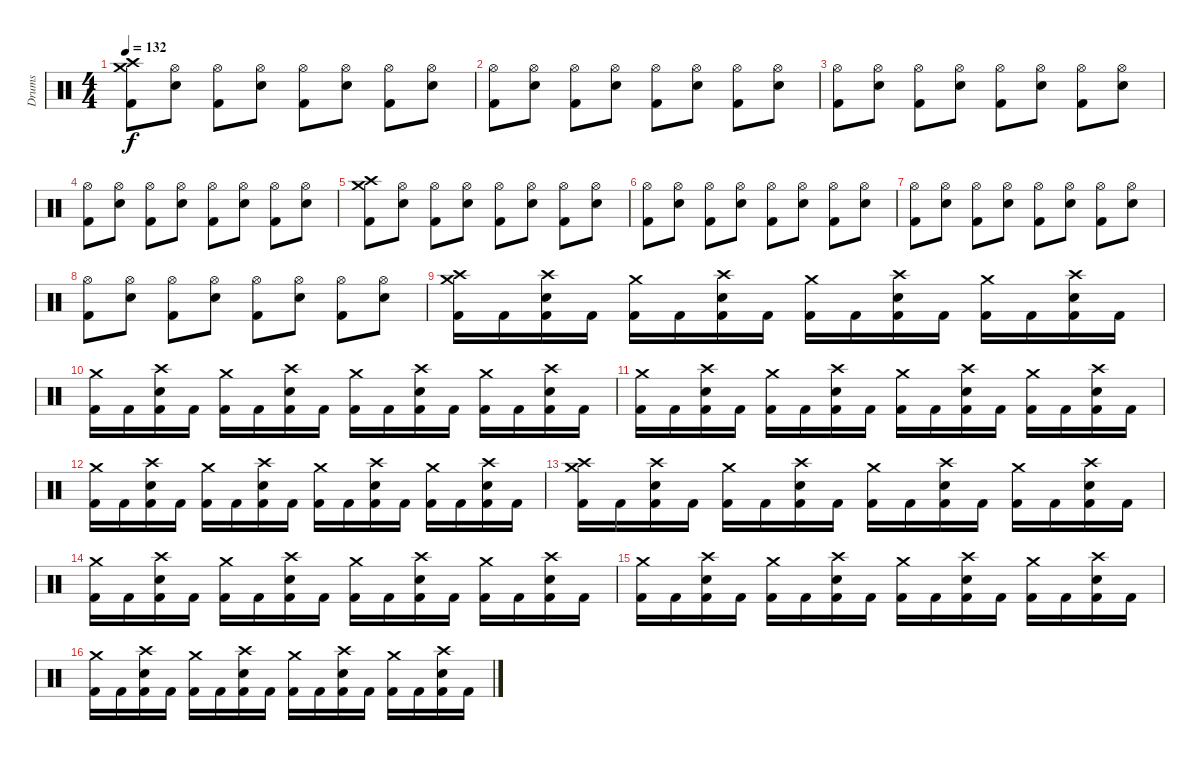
\track ("Drums" "Drums") {instrument percussion}
\staff {score}
\articulation defaults
\ts (4 4)
\tempo 132
\clef neutral
\ks c
("Crash high (hit)" "Crash medium (hit)" "Kick (hit) 2").8{dy f} ("Hi-Hat (open)" "Electric Snare (hit)").8 ("Hi-Hat (open)" "Kick (hit) 2").8 ("Hi-Hat (open)" "Electric Snare (hit)").8 ("Hi-Hat (open)" "Kick (hit) 2").8 ("Hi-Hat (open)" "Electric Snare (hit)").8 ("Hi-Hat (open)" "Kick (hit) 2").8 ("Hi-Hat (open)" "Electric Snare (hit)").8 |
("Hi-Hat (open)" "Kick (hit) 2").8 ("Hi-Hat (open)" "Electric Snare (hit)").8 ("Hi-Hat (open)" "Kick (hit) 2").8 ("Hi-Hat (open)" "Electric Snare (hit)").8 ("Hi-Hat (open)" "Kick (hit) 2").8 ("Hi-Hat (open)" "Electric Snare (hit)").8 ("Hi-Hat (open)" "Kick (hit) 2").8 ("Hi-Hat (open)" "Electric Snare (hit)").8 |
("Hi-Hat (open)" "Kick (hit) 2").8 ("Hi-Hat (open)" "Electric Snare (hit)").8 ("Hi-Hat (open)" "Kick (hit) 2").8 ("Hi-Hat (open)" "Electric Snare (hit)").8 ("Hi-Hat (open)" "Kick (hit) 2").8 ("Hi-Hat (open)" "Electric Snare (hit)").8 ("Hi-Hat (open)" "Kick (hit) 2").8 ("Hi-Hat (open)" "Electric Snare (hit)").8 |
("Hi-Hat (open)" "Kick (hit) 2").8 ("Hi-Hat (open)" "Electric Snare (hit)").8 ("Hi-Hat (open)" "Kick (hit) 2").8 ("Hi-Hat (open)" "Electric Snare (hit)").8 ("Hi-Hat (open)" "Kick (hit) 2").8 ("Hi-Hat (open)" "Electric Snare (hit)").8 ("Hi-Hat (open)" "Kick (hit) 2").8 ("Hi-Hat (open)" "Electric Snare (hit)").8 |
("Crash high (hit)" "Crash medium (hit)" "Kick (hit) 2").8 ("Hi-Hat (open)" "Electric Snare (hit)").8 ("Hi-Hat (open)" "Kick (hit) 2").8 ("Hi-Hat (open)" "Electric Snare (hit)").8 ("Hi-Hat (open)" "Kick (hit) 2").8 ("Hi-Hat (open)" "Electric Snare (hit)").8 ("Hi-Hat (open)" "Kick (hit) 2").8 ("Hi-Hat (open)" "Electric Snare (hit)").8 |
("Hi-Hat (open)" "Kick (hit) 2").8 ("Hi-Hat (open)" "Electric Snare (hit)").8 ("Hi-Hat (open)" "Kick (hit) 2").8 ("Hi-Hat (open)" "Electric Snare (hit)").8 ("Hi-Hat (open)" "Kick (hit) 2").8 ("Hi-Hat (open)" "Electric Snare (hit)").8 ("Hi-Hat (open)" "Kick (hit) 2").8 ("Hi-Hat (open)" "Electric Snare (hit)").8 |
("Hi-Hat (open)" "Kick (hit) 2").8 ("Hi-Hat (open)" "Electric Snare (hit)").8 ("Hi-Hat (open)" "Kick (hit) 2").8 ("Hi-Hat (open)" "Electric Snare (hit)").8 ("Hi-Hat (open)" "Kick (hit) 2").8 ("Hi-Hat (open)" "Electric Snare (hit)").8 ("Hi-Hat (open)" "Kick (hit) 2").8 ("Hi-Hat (open)" "Electric Snare (hit)").8 |
("Hi-Hat (open)" "Kick (hit) 2").8 ("Hi-Hat (open)" "Electric Snare (hit)").8 ("Hi-Hat (open)" "Kick (hit) 2").8 ("Hi-Hat (open)" "Electric Snare (hit)").8 ("Hi-Hat (open)" "Kick (hit) 2").8 ("Hi-Hat (open)" "Electric Snare (hit)").8 ("Hi-Hat (open)" "Kick (hit) 2").8 ("Hi-Hat (open)" "Electric Snare (hit)").8 |
("Crash high (hit)" "Crash medium (hit)" "Kick (hit) 2").16 "Kick (hit) 2".16 ("Crash high (hit)" "Kick (hit) 2" "Electric Snare (hit)").16 "Kick (hit) 2".16 ("Crash medium (hit)" "Kick (hit) 2").16 "Kick (hit) 2".16 ("Crash high (hit)" "Kick (hit) 2" "Electric Snare (hit)").16 "Kick (hit) 2".16 ("Crash medium (hit)" "Kick (hit) 2").16 "Kick (hit) 2".16 ("Crash high (hit)" "Kick (hit) 2" "Electric Snare (hit)").16 "Kick (hit) 2".16 ("Crash medium (hit)" "Kick (hit) 2").16 "Kick (hit) 2".16 ("Crash high (hit)" "Kick (hit) 2" "Electric Snare (hit)").16 "Kick (hit) 2".16 |
("Crash medium (hit)" "Kick (hit) 2").16 "Kick (hit) 2".16 ("Crash high (hit)" "Kick (hit) 2" "Electric Snare (hit)").16 "Kick (hit) 2".16 ("Crash medium (hit)" "Kick (hit) 2").16 "Kick (hit) 2".16 ("Crash high (hit)" "Kick (hit) 2" "Electric Snare (hit)").16 "Kick (hit) 2".16 ("Crash medium (hit)" "Kick (hit) 2").16 "Kick (hit) 2".16 ("Crash high (hit)" "Kick (hit) 2" "Electric Snare (hit)").16 "Kick (hit) 2".16 ("Crash medium (hit)" "Kick (hit) 2").16 "Kick (hit) 2".16 ("Crash high (hit)" "Kick (hit) 2" "Electric Snare (hit)").16 "Kick (hit) 2".16 |
("Crash medium (hit)" "Kick (hit) 2").16 "Kick (hit) 2".16 ("Crash high (hit)" "Kick (hit) 2" "Electric Snare (hit)").16 "Kick (hit) 2".16 ("Crash medium (hit)" "Kick (hit) 2").16 "Kick (hit) 2".16 ("Crash high (hit)" "Kick (hit) 2" "Electric Snare (hit)").16 "Kick (hit) 2".16 ("Crash medium (hit)" "Kick (hit) 2").16 "Kick (hit) 2".16 ("Crash high (hit)" "Kick (hit) 2" "Electric Snare (hit)").16 "Kick (hit) 2".16 ("Crash medium (hit)" "Kick (hit) 2").16 "Kick (hit) 2".16 ("Crash high (hit)" "Kick (hit) 2" "Electric Snare (hit)").16 "Kick (hit) 2".16 |
("Crash medium (hit)" "Kick (hit) 2").16 "Kick (hit) 2".16 ("Crash high (hit)" "Kick (hit) 2" "Electric Snare (hit)").16 "Kick (hit) 2".16 ("Crash medium (hit)" "Kick (hit) 2").16 "Kick (hit) 2".16 ("Crash high (hit)" "Kick (hit) 2" "Electric Snare (hit)").16 "Kick (hit) 2".16 ("Crash medium (hit)" "Kick (hit) 2").16 "Kick (hit) 2".16 ("Crash high (hit)" "Kick (hit) 2" "Electric Snare (hit)").16 "Kick (hit) 2".16 ("Crash medium (hit)" "Kick (hit) 2").16 "Kick (hit) 2".16 ("Crash high (hit)" "Kick (hit) 2" "Electric Snare (hit)").16 "Kick (hit) 2".16 |
("Crash high (hit)" "Crash medium (hit)" "Kick (hit) 2").16 "Kick (hit) 2".16 ("Crash high (hit)" "Kick (hit) 2" "Electric Snare (hit)").16 "Kick (hit) 2".16 ("Crash medium (hit)" "Kick (hit) 2").16 "Kick (hit) 2".16 ("Crash high (hit)" "Kick (hit) 2" "Electric Snare (hit)").16 "Kick (hit) 2".16 ("Crash medium (hit)" "Kick (hit) 2").16 "Kick (hit) 2".16 ("Crash high (hit)" "Kick (hit) 2" "Electric Snare (hit)").16 "Kick (hit) 2".16 ("Crash medium (hit)" "Kick (hit) 2").16 "Kick (hit) 2".16 ("Crash high (hit)" "Kick (hit) 2" "Electric Snare (hit)").16 "Kick (hit) 2".16 |
("Crash medium (hit)" "Kick (hit) 2").16 "Kick (hit) 2".16 ("Crash high (hit)" "Kick (hit) 2" "Electric Snare (hit)").16 "Kick (hit) 2".16 ("Crash medium (hit)" "Kick (hit) 2").16 "Kick (hit) 2".16 ("Crash high (hit)" "Kick (hit) 2" "Electric Snare (hit)").16 "Kick (hit) 2".16 ("Crash medium (hit)" "Kick (hit) 2").16 "Kick (hit) 2".16 ("Crash high (hit)" "Kick (hit) 2" "Electric Snare (hit)").16 "Kick (hit) 2".16 ("Crash medium (hit)" "Kick (hit) 2").16 "Kick (hit) 2".16 ("Crash high (hit)" "Kick (hit) 2" "Electric Snare (hit)").16 "Kick (hit) 2".16 |
("Crash medium (hit)" "Kick (hit) 2").16 "Kick (hit) 2".16 ("Crash high (hit)" "Kick (hit) 2" "Electric Snare (hit)").16 "Kick (hit) 2".16 ("Crash medium (hit)" "Kick (hit) 2").16 "Kick (hit) 2".16 ("Crash high (hit)" "Kick (hit) 2" "Electric Snare (hit)").16 "Kick (hit) 2".16 ("Crash medium (hit)" "Kick (hit) 2").16 "Kick (hit) 2".16 ("Crash high (hit)" "Kick (hit) 2" "Electric Snare (hit)").16 "Kick (hit) 2".16 ("Crash medium (hit)" "Kick (hit) 2").16 "Kick (hit) 2".16 ("Crash high (hit)" "Kick (hit) 2" "Electric Snare (hit)").16 "Kick (hit) 2".16 |
("Crash medium (hit)" "Kick (hit) 2").16 "Kick (hit) 2".16 ("Crash high (hit)" "Kick (hit) 2" "Electric Snare (hit)").16 "Kick (hit) 2".16 ("Crash medium (hit)" "Kick (hit) 2").16 "Kick (hit) 2".16 ("Crash high (hit)" "Kick (hit) 2" "Electric Snare (hit)").16 "Kick (hit) 2".16 ("Crash medium (hit)" "Kick (hit) 2").16 "Kick (hit) 2".16 ("Crash high (hit)" "Kick (hit) 2" "Electric Snare (hit)").16 "Kick (hit) 2".16 ("Crash medium (hit)" "Kick (hit) 2").16 "Kick (hit) 2".16 ("Crash high (hit)" "Kick (hit) 2" "Electric Snare (hit)").16 "Kick (hit) 2".16
